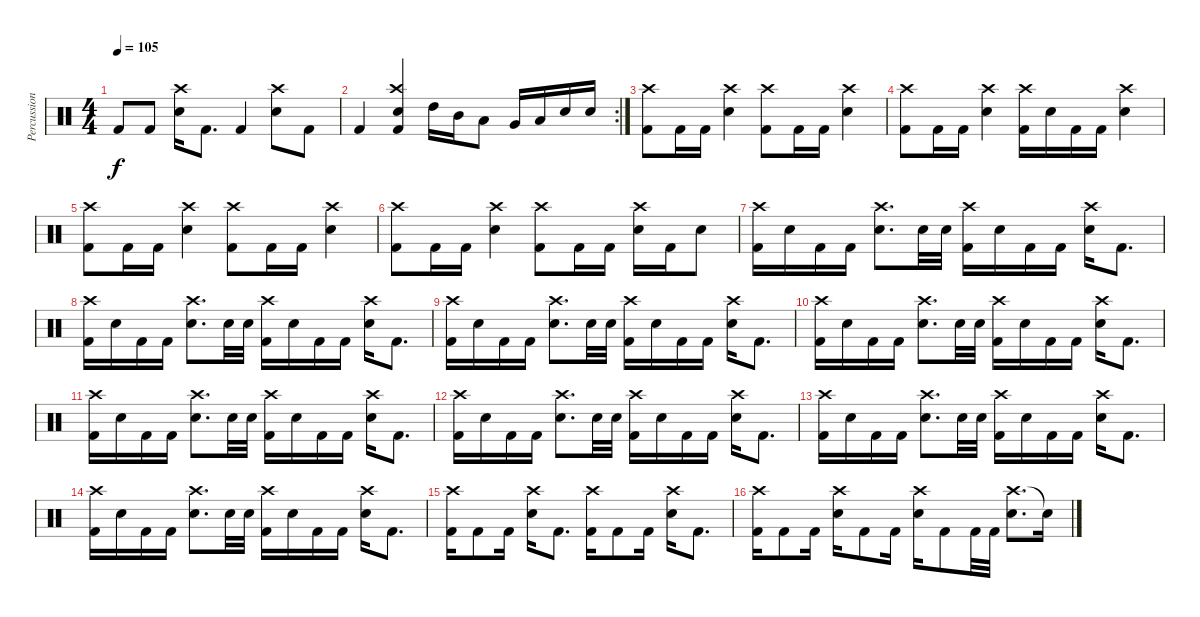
\track ("Percussion" "Percussion") {instrument percussion}
\staff {score}
\articulation defaults
\ts (4 4)
\tempo 105
\clef neutral
\ks c "Kick (hit) 2".8{dy f} "Kick (hit) 2".8
("Crash high (hit)" "Electric Snare (hit)").16 "Kick (hit) 2".8{d} "Kick (hit) 2".4 ("Crash high (hit)" "Electric Snare (hit)").8 "Kick (hit) 2".8 |
\rc 2 "Kick (hit) 2".4
("Crash high (hit)" "Electric Snare (hit)" "Kick (hit) 2").4 "High Tom (hit)".16 "Mid Tom (hit)".16 "Low Tom (hit)".8 "Very Low Tom (hit)".16 "Low Floor Tom (hit)".16 "Electric Snare (hit)".16 "Electric Snare (hit)".16 |
("Crash high (hit)" "Kick (hit) 2").8 "Kick (hit) 2".16 "Kick (hit) 2".16 ("Crash high (hit)" "Electric Snare (hit)").4 ("Crash high (hit)" "Kick (hit) 2").8 "Kick (hit) 2".16 "Kick (hit) 2".16 ("Crash high (hit)" "Electric Snare (hit)").4 |
("Crash high (hit)" "Kick (hit) 2").8 "Kick (hit) 2".16 "Kick (hit) 2".16 ("Crash high (hit)" "Electric Snare (hit)").4 ("Crash high (hit)" "Kick (hit) 2").16 "Electric Snare (hit)".16 "Kick (hit) 2".16 "Kick (hit) 2".16 ("Crash high (hit)" "Electric Snare (hit)").4 |
("Crash high (hit)" "Kick (hit) 2").8 "Kick (hit) 2".16 "Kick (hit) 2".16 ("Crash high (hit)" "Electric Snare (hit)").4 ("Crash high (hit)" "Kick (hit) 2").8 "Kick (hit) 2".16 "Kick (hit) 2".16 ("Crash high (hit)" "Electric Snare (hit)").4 |
("Crash high (hit)" "Kick (hit) 2").8 "Kick (hit) 2".16 "Kick (hit) 2".16 ("Crash high (hit)" "Electric Snare (hit)").4 ("Crash high (hit)" "Kick (hit) 2").8 "Kick (hit) 2".16 "Kick (hit) 2".16 ("Crash high (hit)" "Electric Snare (hit)").16 "Kick (hit) 2".16 "Electric Snare (hit)".8 |
("Crash high (hit)" "Kick (hit) 2").16 "Electric Snare (hit)".16 "Kick (hit) 2".16 "Kick (hit) 2".16 ("Crash high (hit)" "Electric Snare (hit)").8{d} "Electric Snare (hit)".32 "Electric Snare (hit)".32 ("Crash high (hit)" "Kick (hit) 2").16 "Electric Snare (hit)".16 "Kick (hit) 2".16 "Kick (hit) 2".16 ("Crash high (hit)" "Electric Snare (hit)").16 "Kick (hit) 2".8{d} |
("Crash high (hit)" "Kick (hit) 2").16 "Electric Snare (hit)".16 "Kick (hit) 2".16 "Kick (hit) 2".16 ("Crash high (hit)" "Electric Snare (hit)").8{d} "Electric Snare (hit)".32 "Electric Snare (hit)".32 ("Crash high (hit)" "Kick (hit) 2").16 "Electric Snare (hit)".16 "Kick (hit) 2".16 "Kick (hit) 2".16 ("Crash high (hit)" "Electric Snare (hit)").16 "Kick (hit) 2".8{d} |
("Crash high (hit)" "Kick (hit) 2").16 "Electric Snare (hit)".16 "Kick (hit) 2".16 "Kick (hit) 2".16 ("Crash high (hit)" "Electric Snare (hit)").8{d} "Electric Snare (hit)".32 "Electric Snare (hit)".32 ("Crash high (hit)" "Kick (hit) 2").16 "Electric Snare (hit)".16 "Kick (hit) 2".16 "Kick (hit) 2".16 ("Crash high (hit)" "Electric Snare (hit)").16 "Kick (hit) 2".8{d} |
("Crash high (hit)" "Kick (hit) 2").16 "Electric Snare (hit)".16 "Kick (hit) 2".16 "Kick (hit) 2".16 ("Crash high (hit)" "Electric Snare (hit)").8{d} "Electric Snare (hit)".32 "Electric Snare (hit)".32 ("Crash high (hit)" "Kick (hit) 2").16 "Electric Snare (hit)".16 "Kick (hit) 2".16 "Kick (hit) 2".16 ("Crash high (hit)" "Electric Snare (hit)").16 "Kick (hit) 2".8{d} |
("Crash high (hit)" "Kick (hit) 2").16 "Electric Snare (hit)".16 "Kick (hit) 2".16 "Kick (hit) 2".16 ("Crash high (hit)" "Electric Snare (hit)").8{d} "Electric Snare (hit)".32 "Electric Snare (hit)".32 ("Crash high (hit)" "Kick (hit) 2").16 "Electric Snare (hit)".16 "Kick (hit) 2".16 "Kick (hit) 2".16 ("Crash high (hit)" "Electric Snare (hit)").16 "Kick (hit) 2".8{d} |
("Crash high (hit)" "Kick (hit) 2").16 "Electric Snare (hit)".16 "Kick (hit) 2".16 "Kick (hit) 2".16 ("Crash high (hit)" "Electric Snare (hit)").8{d} "Electric Snare (hit)".32 "Electric Snare (hit)".32 ("Crash high (hit)" "Kick (hit) 2").16 "Electric Snare (hit)".16 "Kick (hit) 2".16 "Kick (hit) 2".16 ("Crash high (hit)" "Electric Snare (hit)").16 "Kick (hit) 2".8{d} |
("Crash high (hit)" "Kick (hit) 2").16 "Electric Snare (hit)".16 "Kick (hit) 2".16 "Kick (hit) 2".16 ("Crash high (hit)" "Electric Snare (hit)").8{d} "Electric Snare (hit)".32 "Electric Snare (hit)".32 ("Crash high (hit)" "Kick (hit) 2").16 "Electric Snare (hit)".16 "Kick (hit) 2".16 "Kick (hit) 2".16 ("Crash high (hit)" "Electric Snare (hit)").16 "Kick (hit) 2".8{d} |
("Crash high (hit)" "Kick (hit) 2").16 "Electric Snare (hit)".16 "Kick (hit) 2".16 "Kick (hit) 2".16 ("Crash high (hit)" "Electric Snare (hit)").8{d} "Electric Snare (hit)".32 "Electric Snare (hit)".32 ("Crash high (hit)" "Kick (hit) 2").16 "Electric Snare (hit)".16 "Kick (hit) 2".16 "Kick (hit) 2".16 ("Crash high (hit)" "Electric Snare (hit)").16 "Kick (hit) 2".8{d} |
("Crash high (hit)" "Kick (hit) 2").16 "Kick (hit) 2".8 "Kick (hit) 2".16 ("Crash high (hit)" "Electric Snare (hit)").16 "Kick (hit) 2".8{d} ("Crash high (hit)" "Kick (hit) 2").16 "Kick (hit) 2".8 "Kick (hit) 2".16 ("Crash high (hit)" "Electric Snare (hit)").16 "Kick (hit) 2".8{d} |
("Crash high (hit)" "Kick (hit) 2").16 "Kick (hit) 2".8 "Kick (hit) 2".16 ("Crash high (hit)" "Electric Snare (hit)").16 "Kick (hit) 2".8 "Kick (hit) 2".16 ("Crash high (hit)" "Electric Snare (hit)").16 "Kick (hit) 2".8 "Kick (hit) 2".32 "Kick (hit) 2".32 ("Crash high (hit)" "Electric Snare (hit)").8{d} "Snare (hit)"{t}.16
